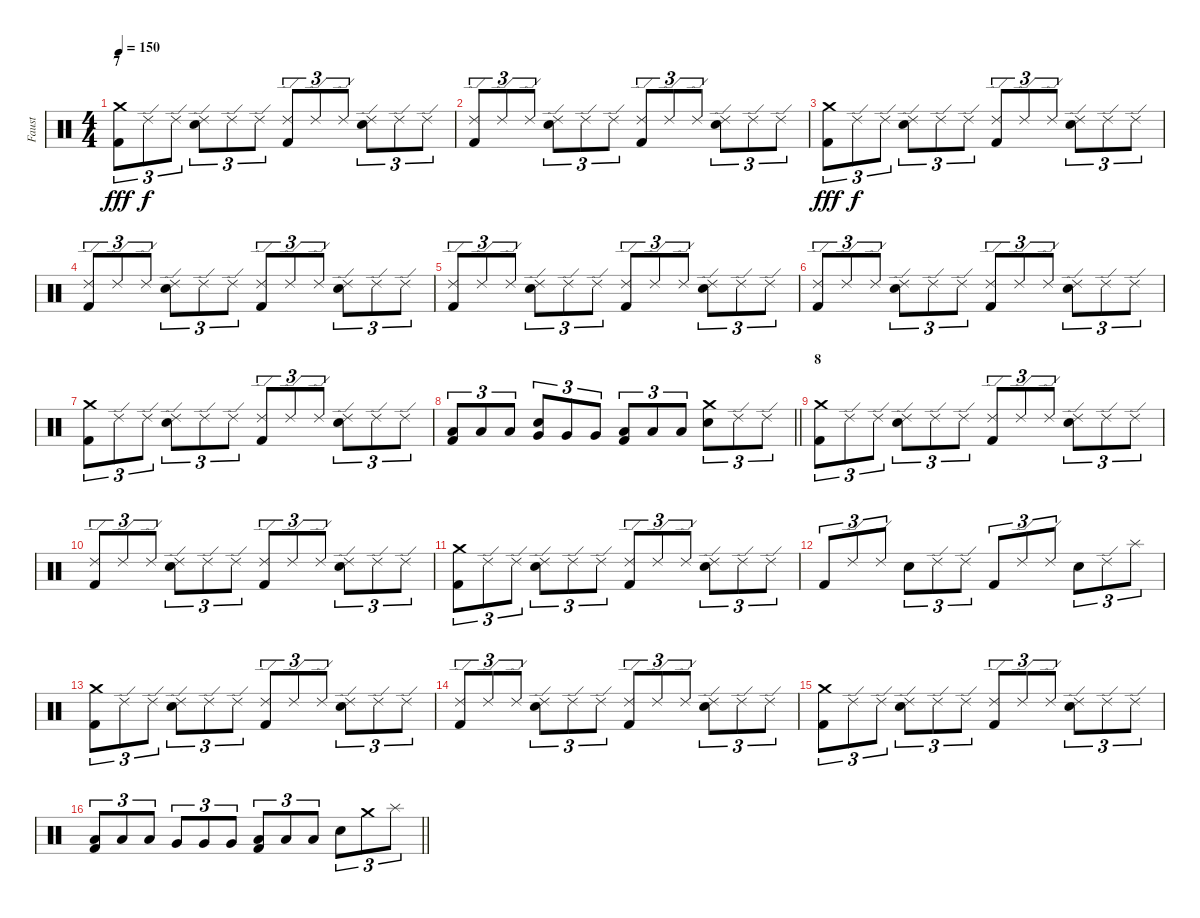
\track ("Faust" "Faust") {instrument percussion}
\staff {score}
\articulation defaults
\ts (4 4)
\section ("" "7")
\tempo 150
\clef neutral
\ks c
("Crash medium (hit)" "Kick (hit) 2").8{tu (3 2) dy fff} "Ride (edge) 2".8{tu (3 2) dy f} "Ride (edge) 2".8{tu (3 2)} ("Ride (edge) 2" "Electric Snare (hit)").8{tu (3 2)} "Ride (edge) 2".8{tu (3 2)} "Ride (edge) 2".8{tu (3 2)} ("Ride (edge) 2" "Kick (hit) 2").8{tu (3 2)} "Ride (edge) 2".8{tu (3 2)} "Ride (edge) 2".8{tu (3 2)} ("Ride (edge) 2" "Electric Snare (hit)").8{tu (3 2)} "Ride (edge) 2".8{tu (3 2)} "Ride (edge) 2".8{tu (3 2)} |
("Ride (edge) 2" "Kick (hit) 2").8{tu (3 2)} "Ride (edge) 2".8{tu (3 2)} "Ride (edge) 2".8{tu (3 2)} ("Ride (edge) 2" "Electric Snare (hit)").8{tu (3 2)} "Ride (edge) 2".8{tu (3 2)} "Ride (edge) 2".8{tu (3 2)} ("Ride (edge) 2" "Kick (hit) 2").8{tu (3 2)} "Ride (edge) 2".8{tu (3 2)} "Ride (edge) 2".8{tu (3 2)} ("Ride (edge) 2" "Electric Snare (hit)").8{tu (3 2)} "Ride (edge) 2".8{tu (3 2)} "Ride (edge) 2".8{tu (3 2)} |
("Crash medium (hit)" "Kick (hit) 2").8{tu (3 2) dy fff} "Ride (edge) 2".8{tu (3 2) dy f} "Ride (edge) 2".8{tu (3 2)} ("Ride (edge) 2" "Electric Snare (hit)").8{tu (3 2)} "Ride (edge) 2".8{tu (3 2)} "Ride (edge) 2".8{tu (3 2)} ("Ride (edge) 2" "Kick (hit) 2").8{tu (3 2)} "Ride (edge) 2".8{tu (3 2)} "Ride (edge) 2".8{tu (3 2)} ("Ride (edge) 2" "Electric Snare (hit)").8{tu (3 2)} "Ride (edge) 2".8{tu (3 2)} "Ride (edge) 2".8{tu (3 2)} |
("Ride (edge) 2" "Kick (hit) 2").8{tu (3 2)} "Ride (edge) 2".8{tu (3 2)} "Ride (edge) 2".8{tu (3 2)} ("Ride (edge) 2" "Electric Snare (hit)").8{tu (3 2)} "Ride (edge) 2".8{tu (3 2)} "Ride (edge) 2".8{tu (3 2)} ("Ride (edge) 2" "Kick (hit) 2").8{tu (3 2)} "Ride (edge) 2".8{tu (3 2)} "Ride (edge) 2".8{tu (3 2)} ("Ride (edge) 2" "Electric Snare (hit)").8{tu (3 2)} "Ride (edge) 2".8{tu (3 2)} "Ride (edge) 2".8{tu (3 2)} |
("Ride (edge) 2" "Kick (hit) 2").8{tu (3 2)} "Ride (edge) 2".8{tu (3 2)} "Ride (edge) 2".8{tu (3 2)} ("Ride (edge) 2" "Electric Snare (hit)").8{tu (3 2)} "Ride (edge) 2".8{tu (3 2)} "Ride (edge) 2".8{tu (3 2)} ("Ride (edge) 2" "Kick (hit) 2").8{tu (3 2)} "Ride (edge) 2".8{tu (3 2)} "Ride (edge) 2".8{tu (3 2)} ("Ride (edge) 2" "Electric Snare (hit)").8{tu (3 2)} "Ride (edge) 2".8{tu (3 2)} "Ride (edge) 2".8{tu (3 2)} |
("Ride (edge) 2" "Kick (hit) 2").8{tu (3 2)} "Ride (edge) 2".8{tu (3 2)} "Ride (edge) 2".8{tu (3 2)} ("Ride (edge) 2" "Electric Snare (hit)").8{tu (3 2)} "Ride (edge) 2".8{tu (3 2)} "Ride (edge) 2".8{tu (3 2)} ("Ride (edge) 2" "Kick (hit) 2").8{tu (3 2)} "Ride (edge) 2".8{tu (3 2)} "Ride (edge) 2".8{tu (3 2)} ("Ride (edge) 2" "Electric Snare (hit)").8{tu (3 2)} "Ride (edge) 2".8{tu (3 2)} "Ride (edge) 2".8{tu (3 2)} |
("Crash medium (hit)" "Kick (hit) 2").8{tu (3 2)} "Ride (edge) 2".8{tu (3 2)} "Ride (edge) 2".8{tu (3 2)} ("Ride (edge) 2" "Electric Snare (hit)").8{tu (3 2)} "Ride (edge) 2".8{tu (3 2)} "Ride (edge) 2".8{tu (3 2)} ("Ride (edge) 2" "Kick (hit) 2").8{tu (3 2)} "Ride (edge) 2".8{tu (3 2)} "Ride (edge) 2".8{tu (3 2)} ("Ride (edge) 2" "Electric Snare (hit)").8{tu (3 2)} "Ride (edge) 2".8{tu (3 2)} "Ride (edge) 2".8{tu (3 2)} |
\barLineRight lightlight
("Low Tom (hit)" "Kick (hit) 2").8{tu (3 2)} "Low Tom (hit)".8{tu (3 2)} "Low Tom (hit)".8{tu (3 2)} ("Very Low Tom (hit)" "Electric Snare (hit)").8{tu (3 2)} "Very Low Tom (hit)".8{tu (3 2)} "Very Low Tom (hit)".8{tu (3 2)} ("Low Floor Tom (hit)" "Kick (hit) 2").8{tu (3 2)} "Low Floor Tom (hit)".8{tu (3 2)} "Low Floor Tom (hit)".8{tu (3 2)} ("Crash medium (hit)" "Electric Snare (hit)").8{tu (3 2)} "Ride (edge) 2".8{tu (3 2)} "Ride (edge) 2".8{tu (3 2)} |
\section ("" "8")
("Crash medium (hit)" "Kick (hit) 2").8{tu (3 2)} "Ride (edge) 2".8{tu (3 2)} "Ride (edge) 2".8{tu (3 2)} ("Ride (edge) 2" "Electric Snare (hit)").8{tu (3 2)} "Ride (edge) 2".8{tu (3 2)} "Ride (edge) 2".8{tu (3 2)} ("Ride (edge) 2" "Kick (hit) 2").8{tu (3 2)} "Ride (edge) 2".8{tu (3 2)} "Ride (edge) 2".8{tu (3 2)} ("Ride (edge) 2" "Electric Snare (hit)").8{tu (3 2)} "Ride (edge) 2".8{tu (3 2)} "Ride (edge) 2".8{tu (3 2)} |
("Ride (edge) 2" "Kick (hit) 2").8{tu (3 2)} "Ride (edge) 2".8{tu (3 2)} "Ride (edge) 2".8{tu (3 2)} ("Ride (edge) 2" "Electric Snare (hit)").8{tu (3 2)} "Ride (edge) 2".8{tu (3 2)} "Ride (edge) 2".8{tu (3 2)} ("Ride (edge) 2" "Kick (hit) 2").8{tu (3 2)} "Ride (edge) 2".8{tu (3 2)} "Ride (edge) 2".8{tu (3 2)} ("Ride (edge) 2" "Electric Snare (hit)").8{tu (3 2)} "Ride (edge) 2".8{tu (3 2)} "Ride (edge) 2".8{tu (3 2)} |
("Crash medium (hit)" "Kick (hit) 2").8{tu (3 2)} "Ride (edge) 2".8{tu (3 2)} "Ride (edge) 2".8{tu (3 2)} ("Ride (edge) 2" "Electric Snare (hit)").8{tu (3 2)} "Ride (edge) 2".8{tu (3 2)} "Ride (edge) 2".8{tu (3 2)} ("Ride (edge) 2" "Kick (hit) 2").8{tu (3 2)} "Ride (edge) 2".8{tu (3 2)} "Ride (edge) 2".8{tu (3 2)} ("Ride (edge) 2" "Electric Snare (hit)").8{tu (3 2)} "Ride (edge) 2".8{tu (3 2)} "Ride (edge) 2".8{tu (3 2)} |
"Kick (hit) 2".8{tu (3 2)} "Ride (edge) 2".8{tu (3 2)} "Ride (edge) 2".8{tu (3 2)} "Electric Snare (hit)".8{tu (3 2)} "Ride (edge) 2".8{tu (3 2)} "Ride (edge) 2".8{tu (3 2)} "Kick (hit) 2".8{tu (3 2)} "Ride (edge) 2".8{tu (3 2)} "Ride (edge) 2".8{tu (3 2)} "Electric Snare (hit)".8{tu (3 2)} "Ride (edge) 2".8{tu (3 2)} "Splash (hit)".8{tu (3 2)} |
("Crash medium (hit)" "Kick (hit) 2").8{tu (3 2)} "Ride (edge) 2".8{tu (3 2)} "Ride (edge) 2".8{tu (3 2)} ("Ride (edge) 2" "Electric Snare (hit)").8{tu (3 2)} "Ride (edge) 2".8{tu (3 2)} "Ride (edge) 2".8{tu (3 2)} ("Ride (edge) 2" "Kick (hit) 2").8{tu (3 2)} "Ride (edge) 2".8{tu (3 2)} "Ride (edge) 2".8{tu (3 2)} ("Ride (edge) 2" "Electric Snare (hit)").8{tu (3 2)} "Ride (edge) 2".8{tu (3 2)} "Ride (edge) 2".8{tu (3 2)} |
("Ride (edge) 2" "Kick (hit) 2").8{tu (3 2)} "Ride (edge) 2".8{tu (3 2)} "Ride (edge) 2".8{tu (3 2)} ("Ride (edge) 2" "Electric Snare (hit)").8{tu (3 2)} "Ride (edge) 2".8{tu (3 2)} "Ride (edge) 2".8{tu (3 2)} ("Ride (edge) 2" "Kick (hit) 2").8{tu (3 2)} "Ride (edge) 2".8{tu (3 2)} "Ride (edge) 2".8{tu (3 2)} ("Ride (edge) 2" "Electric Snare (hit)").8{tu (3 2)} "Ride (edge) 2".8{tu (3 2)} "Ride (edge) 2".8{tu (3 2)} |
("Crash medium (hit)" "Kick (hit) 2").8{tu (3 2)} "Ride (edge) 2".8{tu (3 2)} "Ride (edge) 2".8{tu (3 2)} ("Ride (edge) 2" "Electric Snare (hit)").8{tu (3 2)} "Ride (edge) 2".8{tu (3 2)} "Ride (edge) 2".8{tu (3 2)} ("Ride (edge) 2" "Kick (hit) 2").8{tu (3 2)} "Ride (edge) 2".8{tu (3 2)} "Ride (edge) 2".8{tu (3 2)} ("Ride (edge) 2" "Electric Snare (hit)").8{tu (3 2)} "Ride (edge) 2".8{tu (3 2)} "Ride (edge) 2".8{tu (3 2)} |
\barLineRight lightlight
("Low Tom (hit)" "Kick (hit) 2").8{tu (3 2)} "Low Tom (hit)".8{tu (3 2)} "Low Tom (hit)".8{tu (3 2)} "Very Low Tom (hit)".8{tu (3 2)} "Very Low Tom (hit)".8{tu (3 2)} "Very Low Tom (hit)".8{tu (3 2)} ("Low Floor Tom (hit)" "Kick (hit) 2").8{tu (3 2)} "Low Floor Tom (hit)".8{tu (3 2)} "Low Floor Tom (hit)".8{tu (3 2)} "Electric Snare (hit)".8{tu (3 2)} "Crash medium (hit)".8{tu (3 2)} "Splash (hit)".8{tu (3 2)}
